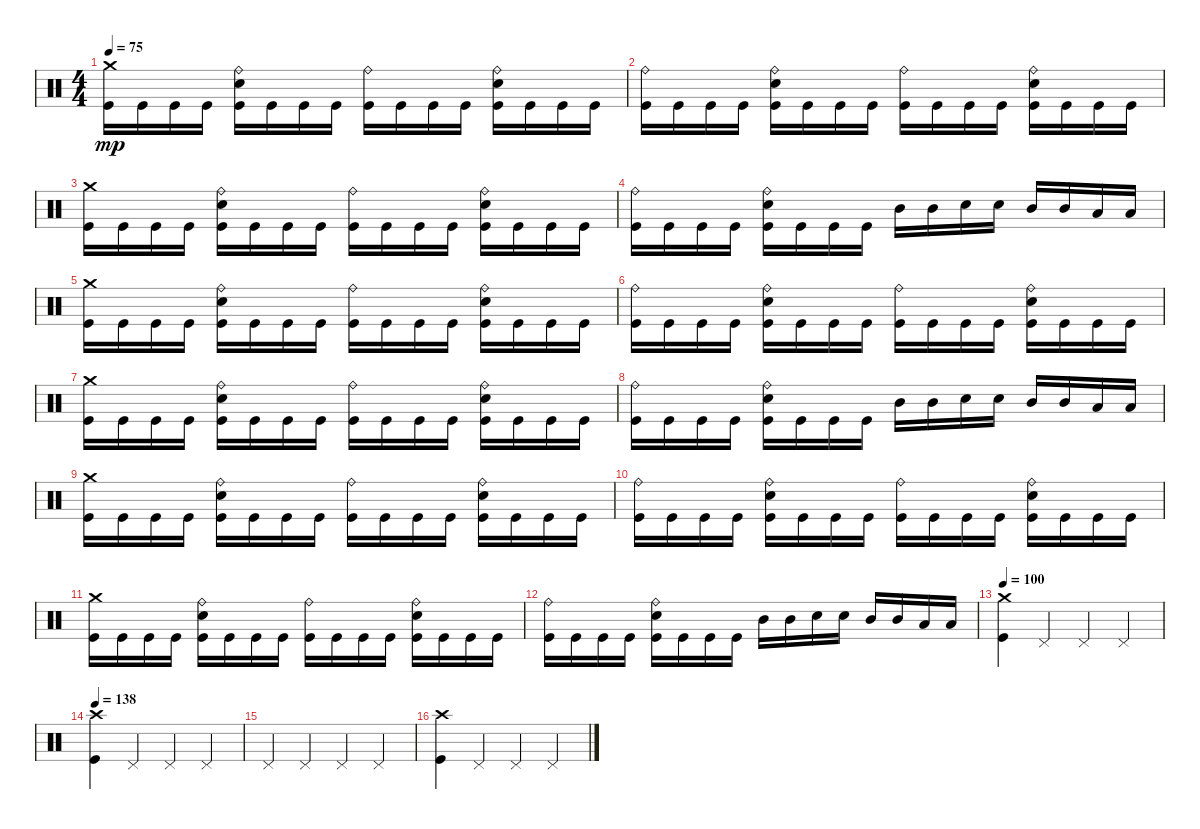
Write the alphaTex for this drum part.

\track "" {instrument percussion}
\staff {score}
\articulation defaults
\ts (4 4)
\tempo 75
\clef neutral
\ks c
("Kick (hit)" "Crash medium (hit)").16{dy mp} "Kick (hit)".16 "Kick (hit)".16 "Kick (hit)".16 ("Snare (hit) 2" "Ride (bell)" "Kick (hit)").16 "Kick (hit)".16 "Kick (hit)".16 "Kick (hit)".16 ("Kick (hit)" "Ride (bell)").16 "Kick (hit)".16 "Kick (hit)".16 "Kick (hit)".16 ("Snare (hit) 2" "Ride (bell)" "Kick (hit)").16 "Kick (hit)".16 "Kick (hit)".16 "Kick (hit)".16 |
("Kick (hit)" "Ride (bell)").16 "Kick (hit)".16 "Kick (hit)".16 "Kick (hit)".16 ("Snare (hit) 2" "Ride (bell)" "Kick (hit)").16 "Kick (hit)".16 "Kick (hit)".16 "Kick (hit)".16 ("Ride (bell)" "Kick (hit)").16 "Kick (hit)".16 "Kick (hit)".16 "Kick (hit)".16 ("Snare (hit) 2" "Ride (bell)" "Kick (hit)").16 "Kick (hit)".16 "Kick (hit)".16 "Kick (hit)".16 |
("Kick (hit)" "Crash medium (hit)").16 "Kick (hit)".16 "Kick (hit)".16 "Kick (hit)".16 ("Snare (hit) 2" "Ride (bell)" "Kick (hit)").16 "Kick (hit)".16 "Kick (hit)".16 "Kick (hit)".16 ("Kick (hit)" "Ride (bell)").16 "Kick (hit)".16 "Kick (hit)".16 "Kick (hit)".16 ("Snare (hit) 2" "Ride (bell)" "Kick (hit)").16 "Kick (hit)".16 "Kick (hit)".16 "Kick (hit)".16 |
("Kick (hit)" "Ride (bell)").16 "Kick (hit)".16 "Kick (hit)".16 "Kick (hit)".16 ("Snare (hit) 2" "Ride (bell)" "Kick (hit)").16 "Kick (hit)".16 "Kick (hit)".16 "Kick (hit)".16 "Mid Tom (hit)".16 "Mid Tom (hit)".16 "Snare (hit) 2".16 "Snare (hit) 2".16 "Mid Tom (hit)".16 "Mid Tom (hit)".16 "Low Tom (hit)".16 "Low Tom (hit)".16 |
("Kick (hit)" "Crash medium (hit)").16 "Kick (hit)".16 "Kick (hit)".16 "Kick (hit)".16 ("Snare (hit) 2" "Ride (bell)" "Kick (hit)").16 "Kick (hit)".16 "Kick (hit)".16 "Kick (hit)".16 ("Kick (hit)" "Ride (bell)").16 "Kick (hit)".16 "Kick (hit)".16 "Kick (hit)".16 ("Snare (hit) 2" "Ride (bell)" "Kick (hit)").16 "Kick (hit)".16 "Kick (hit)".16 "Kick (hit)".16 |
("Kick (hit)" "Ride (bell)").16 "Kick (hit)".16 "Kick (hit)".16 "Kick (hit)".16 ("Snare (hit) 2" "Ride (bell)" "Kick (hit)").16 "Kick (hit)".16 "Kick (hit)".16 "Kick (hit)".16 ("Ride (bell)" "Kick (hit)").16 "Kick (hit)".16 "Kick (hit)".16 "Kick (hit)".16 ("Snare (hit) 2" "Ride (bell)" "Kick (hit)").16 "Kick (hit)".16 "Kick (hit)".16 "Kick (hit)".16 |
("Kick (hit)" "Crash medium (hit)").16 "Kick (hit)".16 "Kick (hit)".16 "Kick (hit)".16 ("Snare (hit) 2" "Ride (bell)" "Kick (hit)").16 "Kick (hit)".16 "Kick (hit)".16 "Kick (hit)".16 ("Kick (hit)" "Ride (bell)").16 "Kick (hit)".16 "Kick (hit)".16 "Kick (hit)".16 ("Snare (hit) 2" "Ride (bell)" "Kick (hit)").16 "Kick (hit)".16 "Kick (hit)".16 "Kick (hit)".16 |
("Kick (hit)" "Ride (bell)").16 "Kick (hit)".16 "Kick (hit)".16 "Kick (hit)".16 ("Snare (hit) 2" "Ride (bell)" "Kick (hit)").16 "Kick (hit)".16 "Kick (hit)".16 "Kick (hit)".16 "Mid Tom (hit)".16 "Mid Tom (hit)".16 "Snare (hit) 2".16 "Snare (hit) 2".16 "Mid Tom (hit)".16 "Mid Tom (hit)".16 "Low Tom (hit)".16 "Low Tom (hit)".16 |
("Kick (hit)" "Crash medium (hit)").16 "Kick (hit)".16 "Kick (hit)".16 "Kick (hit)".16 ("Snare (hit) 2" "Ride (bell)" "Kick (hit)").16 "Kick (hit)".16 "Kick (hit)".16 "Kick (hit)".16 ("Kick (hit)" "Ride (bell)").16 "Kick (hit)".16 "Kick (hit)".16 "Kick (hit)".16 ("Snare (hit) 2" "Ride (bell)" "Kick (hit)").16 "Kick (hit)".16 "Kick (hit)".16 "Kick (hit)".16 |
("Kick (hit)" "Ride (bell)").16 "Kick (hit)".16 "Kick (hit)".16 "Kick (hit)".16 ("Snare (hit) 2" "Ride (bell)" "Kick (hit)").16 "Kick (hit)".16 "Kick (hit)".16 "Kick (hit)".16 ("Ride (bell)" "Kick (hit)").16 "Kick (hit)".16 "Kick (hit)".16 "Kick (hit)".16 ("Snare (hit) 2" "Ride (bell)" "Kick (hit)").16 "Kick (hit)".16 "Kick (hit)".16 "Kick (hit)".16 |
("Kick (hit)" "Crash medium (hit)").16 "Kick (hit)".16 "Kick (hit)".16 "Kick (hit)".16 ("Snare (hit) 2" "Ride (bell)" "Kick (hit)").16 "Kick (hit)".16 "Kick (hit)".16 "Kick (hit)".16 ("Kick (hit)" "Ride (bell)").16 "Kick (hit)".16 "Kick (hit)".16 "Kick (hit)".16 ("Snare (hit) 2" "Ride (bell)" "Kick (hit)").16 "Kick (hit)".16 "Kick (hit)".16 "Kick (hit)".16 |
("Kick (hit)" "Ride (bell)").16 "Kick (hit)".16 "Kick (hit)".16 "Kick (hit)".16 ("Snare (hit) 2" "Ride (bell)" "Kick (hit)").16 "Kick (hit)".16 "Kick (hit)".16 "Kick (hit)".16 "Mid Tom (hit)".16 "Mid Tom (hit)".16 "Snare (hit) 2".16 "Snare (hit) 2".16 "Mid Tom (hit)".16 "Mid Tom (hit)".16 "Low Tom (hit)".16 "Low Tom (hit)".16 |
\tempo 100
("Kick (hit)" "Crash medium (hit)").4 "Pedal Hi-Hat (hit)".4 "Pedal Hi-Hat (hit)".4 "Pedal Hi-Hat (hit)".4 |
\tempo 138
("Kick (hit)" "Crash high (hit)").4 "Pedal Hi-Hat (hit)".4 "Pedal Hi-Hat (hit)".4 "Pedal Hi-Hat (hit)".4 |
"Pedal Hi-Hat (hit)".4 "Pedal Hi-Hat (hit)".4 "Pedal Hi-Hat (hit)".4 "Pedal Hi-Hat (hit)".4 |
("Crash high (hit)" "Kick (hit)").4 "Pedal Hi-Hat (hit)".4 "Pedal Hi-Hat (hit)".4 "Pedal Hi-Hat (hit)".4
